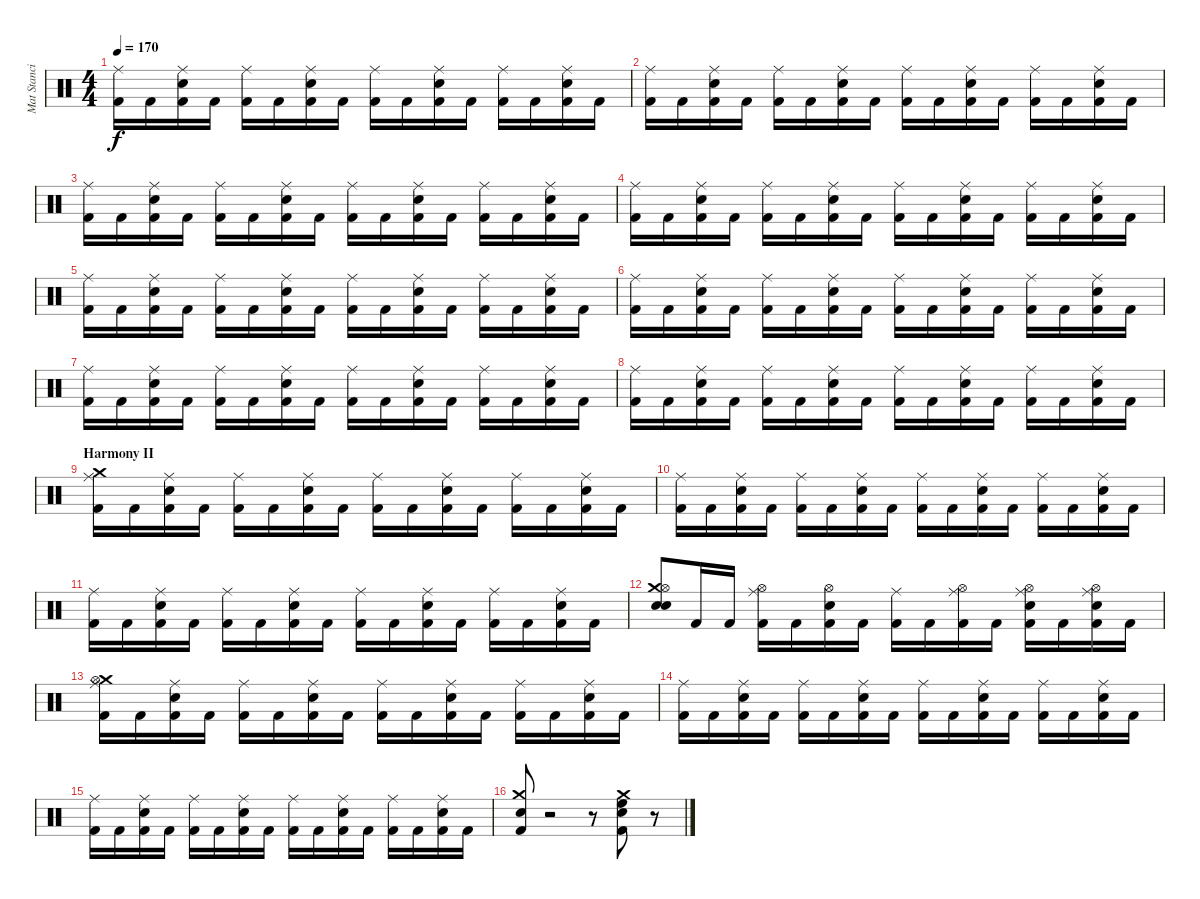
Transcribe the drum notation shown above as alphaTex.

\track ("Mat Stancioiu" "Mat Stanci") {instrument percussion}
\staff {score}
\articulation defaults
\ts (4 4)
\tempo 170
\clef neutral
\ks c
("Kick (hit) 2" "Ride (middle)").16{dy f} "Kick (hit) 2".16 ("Electric Snare (hit)" "Kick (hit) 2" "Ride (middle)").16 "Kick (hit) 2".16 ("Kick (hit) 2" "Ride (middle)").16 "Kick (hit) 2".16 ("Electric Snare (hit)" "Kick (hit) 2" "Ride (middle)").16 "Kick (hit) 2".16 ("Kick (hit) 2" "Ride (middle)").16 "Kick (hit) 2".16 ("Electric Snare (hit)" "Kick (hit) 2" "Ride (middle)").16 "Kick (hit) 2".16 ("Kick (hit) 2" "Ride (middle)").16 "Kick (hit) 2".16 ("Electric Snare (hit)" "Kick (hit) 2" "Ride (middle)").16 "Kick (hit) 2".16 |
("Kick (hit) 2" "Ride (middle)").16 "Kick (hit) 2".16 ("Electric Snare (hit)" "Kick (hit) 2" "Ride (middle)").16 "Kick (hit) 2".16 ("Kick (hit) 2" "Ride (middle)").16 "Kick (hit) 2".16 ("Electric Snare (hit)" "Kick (hit) 2" "Ride (middle)").16 "Kick (hit) 2".16 ("Kick (hit) 2" "Ride (middle)").16 "Kick (hit) 2".16 ("Electric Snare (hit)" "Kick (hit) 2" "Ride (middle)").16 "Kick (hit) 2".16 ("Kick (hit) 2" "Ride (middle)").16 "Kick (hit) 2".16 ("Electric Snare (hit)" "Kick (hit) 2" "Ride (middle)").16 "Kick (hit) 2".16 |
("Kick (hit) 2" "Ride (middle)").16 "Kick (hit) 2".16 ("Electric Snare (hit)" "Kick (hit) 2" "Ride (middle)").16 "Kick (hit) 2".16 ("Kick (hit) 2" "Ride (middle)").16 "Kick (hit) 2".16 ("Electric Snare (hit)" "Kick (hit) 2" "Ride (middle)").16 "Kick (hit) 2".16 ("Kick (hit) 2" "Ride (middle)").16 "Kick (hit) 2".16 ("Electric Snare (hit)" "Kick (hit) 2" "Ride (middle)").16 "Kick (hit) 2".16 ("Kick (hit) 2" "Ride (middle)").16 "Kick (hit) 2".16 ("Electric Snare (hit)" "Kick (hit) 2" "Ride (middle)").16 "Kick (hit) 2".16 |
("Kick (hit) 2" "Ride (middle)").16 "Kick (hit) 2".16 ("Electric Snare (hit)" "Kick (hit) 2" "Ride (middle)").16 "Kick (hit) 2".16 ("Kick (hit) 2" "Ride (middle)").16 "Kick (hit) 2".16 ("Electric Snare (hit)" "Kick (hit) 2" "Ride (middle)").16 "Kick (hit) 2".16 ("Kick (hit) 2" "Ride (middle)").16 "Kick (hit) 2".16 ("Electric Snare (hit)" "Kick (hit) 2" "Ride (middle)").16 "Kick (hit) 2".16 ("Kick (hit) 2" "Ride (middle)").16 "Kick (hit) 2".16 ("Electric Snare (hit)" "Kick (hit) 2" "Ride (middle)").16 "Kick (hit) 2".16 |
("Kick (hit) 2" "Ride (middle)").16 "Kick (hit) 2".16 ("Electric Snare (hit)" "Kick (hit) 2" "Ride (middle)").16 "Kick (hit) 2".16 ("Kick (hit) 2" "Ride (middle)").16 "Kick (hit) 2".16 ("Electric Snare (hit)" "Kick (hit) 2" "Ride (middle)").16 "Kick (hit) 2".16 ("Kick (hit) 2" "Ride (middle)").16 "Kick (hit) 2".16 ("Electric Snare (hit)" "Kick (hit) 2" "Ride (middle)").16 "Kick (hit) 2".16 ("Kick (hit) 2" "Ride (middle)").16 "Kick (hit) 2".16 ("Electric Snare (hit)" "Kick (hit) 2" "Ride (middle)").16 "Kick (hit) 2".16 |
("Kick (hit) 2" "Ride (middle)").16 "Kick (hit) 2".16 ("Electric Snare (hit)" "Kick (hit) 2" "Ride (middle)").16 "Kick (hit) 2".16 ("Kick (hit) 2" "Ride (middle)").16 "Kick (hit) 2".16 ("Electric Snare (hit)" "Kick (hit) 2" "Ride (middle)").16 "Kick (hit) 2".16 ("Kick (hit) 2" "Ride (middle)").16 "Kick (hit) 2".16 ("Electric Snare (hit)" "Kick (hit) 2" "Ride (middle)").16 "Kick (hit) 2".16 ("Kick (hit) 2" "Ride (middle)").16 "Kick (hit) 2".16 ("Electric Snare (hit)" "Kick (hit) 2" "Ride (middle)").16 "Kick (hit) 2".16 |
("Kick (hit) 2" "Ride (middle)").16 "Kick (hit) 2".16 ("Electric Snare (hit)" "Kick (hit) 2" "Ride (middle)").16 "Kick (hit) 2".16 ("Kick (hit) 2" "Ride (middle)").16 "Kick (hit) 2".16 ("Electric Snare (hit)" "Kick (hit) 2" "Ride (middle)").16 "Kick (hit) 2".16 ("Kick (hit) 2" "Ride (middle)").16 "Kick (hit) 2".16 ("Electric Snare (hit)" "Kick (hit) 2" "Ride (middle)").16 "Kick (hit) 2".16 ("Kick (hit) 2" "Ride (middle)").16 "Kick (hit) 2".16 ("Electric Snare (hit)" "Kick (hit) 2" "Ride (middle)").16 "Kick (hit) 2".16 |
("Kick (hit) 2" "Ride (middle)").16 "Kick (hit) 2".16 ("Electric Snare (hit)" "Kick (hit) 2" "Ride (middle)").16 "Kick (hit) 2".16 ("Kick (hit) 2" "Ride (middle)").16 "Kick (hit) 2".16 ("Electric Snare (hit)" "Kick (hit) 2" "Ride (middle)").16 "Kick (hit) 2".16 ("Kick (hit) 2" "Ride (middle)").16 "Kick (hit) 2".16 ("Electric Snare (hit)" "Kick (hit) 2" "Ride (middle)").16 "Kick (hit) 2".16 ("Kick (hit) 2" "Ride (middle)").16 "Kick (hit) 2".16 ("Electric Snare (hit)" "Kick (hit) 2" "Ride (middle)").16 "Kick (hit) 2".16 |
\section ("" "Harmony II")
("Crash medium (hit)" "Kick (hit) 2" "Ride (middle)").16 "Kick (hit) 2".16 ("Electric Snare (hit)" "Kick (hit) 2" "Ride (middle)").16 "Kick (hit) 2".16 ("Kick (hit) 2" "Ride (middle)").16 "Kick (hit) 2".16 ("Electric Snare (hit)" "Kick (hit) 2" "Ride (middle)").16 "Kick (hit) 2".16 ("Kick (hit) 2" "Ride (middle)").16 "Kick (hit) 2".16 ("Electric Snare (hit)" "Kick (hit) 2" "Ride (middle)").16 "Kick (hit) 2".16 ("Kick (hit) 2" "Ride (middle)").16 "Kick (hit) 2".16 ("Electric Snare (hit)" "Kick (hit) 2" "Ride (middle)").16 "Kick (hit) 2".16 |
("Kick (hit) 2" "Ride (middle)").16 "Kick (hit) 2".16 ("Electric Snare (hit)" "Kick (hit) 2" "Ride (middle)").16 "Kick (hit) 2".16 ("Kick (hit) 2" "Ride (middle)").16 "Kick (hit) 2".16 ("Electric Snare (hit)" "Kick (hit) 2" "Ride (middle)").16 "Kick (hit) 2".16 ("Kick (hit) 2" "Ride (middle)").16 "Kick (hit) 2".16 ("Electric Snare (hit)" "Kick (hit) 2" "Ride (middle)").16 "Kick (hit) 2".16 ("Kick (hit) 2" "Ride (middle)").16 "Kick (hit) 2".16 ("Electric Snare (hit)" "Kick (hit) 2" "Ride (middle)").16 "Kick (hit) 2".16 |
("Kick (hit) 2" "Ride (middle)").16 "Kick (hit) 2".16 ("Electric Snare (hit)" "Kick (hit) 2" "Ride (middle)").16 "Kick (hit) 2".16 ("Kick (hit) 2" "Ride (middle)").16 "Kick (hit) 2".16 ("Electric Snare (hit)" "Kick (hit) 2" "Ride (middle)").16 "Kick (hit) 2".16 ("Kick (hit) 2" "Ride (middle)").16 "Kick (hit) 2".16 ("Electric Snare (hit)" "Kick (hit) 2" "Ride (middle)").16 "Kick (hit) 2".16 ("Kick (hit) 2" "Ride (middle)").16 "Kick (hit) 2".16 ("Electric Snare (hit)" "Kick (hit) 2" "Ride (middle)").16 "Kick (hit) 2".16 |
("Crash medium (hit)" "Hi-Hat (open)" "Snare (hit)" "Electric Snare (hit)").8 "Kick (hit) 2".16 "Kick (hit) 2".16 ("Kick (hit) 2" "Hi-Hat (open)" "Ride (middle)").16 "Kick (hit) 2".16 ("Electric Snare (hit)" "Hi-Hat (open)" "Kick (hit) 2").16 "Kick (hit) 2".16 ("Kick (hit) 2" "Ride (middle)").16 "Kick (hit) 2".16 ("Kick (hit) 2" "Hi-Hat (open)" "Ride (middle)").16 "Kick (hit) 2".16 ("Electric Snare (hit)" "Hi-Hat (open)" "Kick (hit) 2" "Ride (middle)").16 "Kick (hit) 2".16 ("Electric Snare (hit)" "Hi-Hat (open)" "Kick (hit) 2" "Ride (middle)").16 "Kick (hit) 2".16 |
("Crash medium (hit)" "Kick (hit) 2" "Ride (middle)" "Hi-Hat (open)").16 "Kick (hit) 2".16 ("Electric Snare (hit)" "Kick (hit) 2" "Ride (middle)").16 "Kick (hit) 2".16 ("Kick (hit) 2" "Ride (middle)").16 "Kick (hit) 2".16 ("Electric Snare (hit)" "Kick (hit) 2" "Ride (middle)").16 "Kick (hit) 2".16 ("Kick (hit) 2" "Ride (middle)").16 "Kick (hit) 2".16 ("Electric Snare (hit)" "Kick (hit) 2" "Ride (middle)").16 "Kick (hit) 2".16 ("Kick (hit) 2" "Ride (middle)").16 "Kick (hit) 2".16 ("Electric Snare (hit)" "Kick (hit) 2" "Ride (middle)").16 "Kick (hit) 2".16 |
("Kick (hit) 2" "Ride (middle)").16 "Kick (hit) 2".16 ("Electric Snare (hit)" "Kick (hit) 2" "Ride (middle)").16 "Kick (hit) 2".16 ("Kick (hit) 2" "Ride (middle)").16 "Kick (hit) 2".16 ("Electric Snare (hit)" "Kick (hit) 2" "Ride (middle)").16 "Kick (hit) 2".16 ("Kick (hit) 2" "Ride (middle)").16 "Kick (hit) 2".16 ("Electric Snare (hit)" "Kick (hit) 2" "Ride (middle)").16 "Kick (hit) 2".16 ("Kick (hit) 2" "Ride (middle)").16 "Kick (hit) 2".16 ("Electric Snare (hit)" "Kick (hit) 2" "Ride (middle)").16 "Kick (hit) 2".16 |
("Kick (hit) 2" "Ride (middle)").16 "Kick (hit) 2".16 ("Electric Snare (hit)" "Kick (hit) 2" "Ride (middle)").16 "Kick (hit) 2".16 ("Kick (hit) 2" "Ride (middle)").16 "Kick (hit) 2".16 ("Electric Snare (hit)" "Kick (hit) 2" "Ride (middle)").16 "Kick (hit) 2".16 ("Kick (hit) 2" "Ride (middle)").16 "Kick (hit) 2".16 ("Electric Snare (hit)" "Kick (hit) 2" "Ride (middle)").16 "Kick (hit) 2".16 ("Kick (hit) 2" "Ride (middle)").16 "Kick (hit) 2".16 ("Electric Snare (hit)" "Kick (hit) 2" "Ride (middle)").16 "Kick (hit) 2".16 |
("Crash medium (hit)" "Kick (hit) 2" "Snare (hit)").8 r.2 r.8 ("Crash medium (hit)" "High Floor Tom (hit)" "Kick (hit) 2" "Electric Snare (hit)").8 r.8
